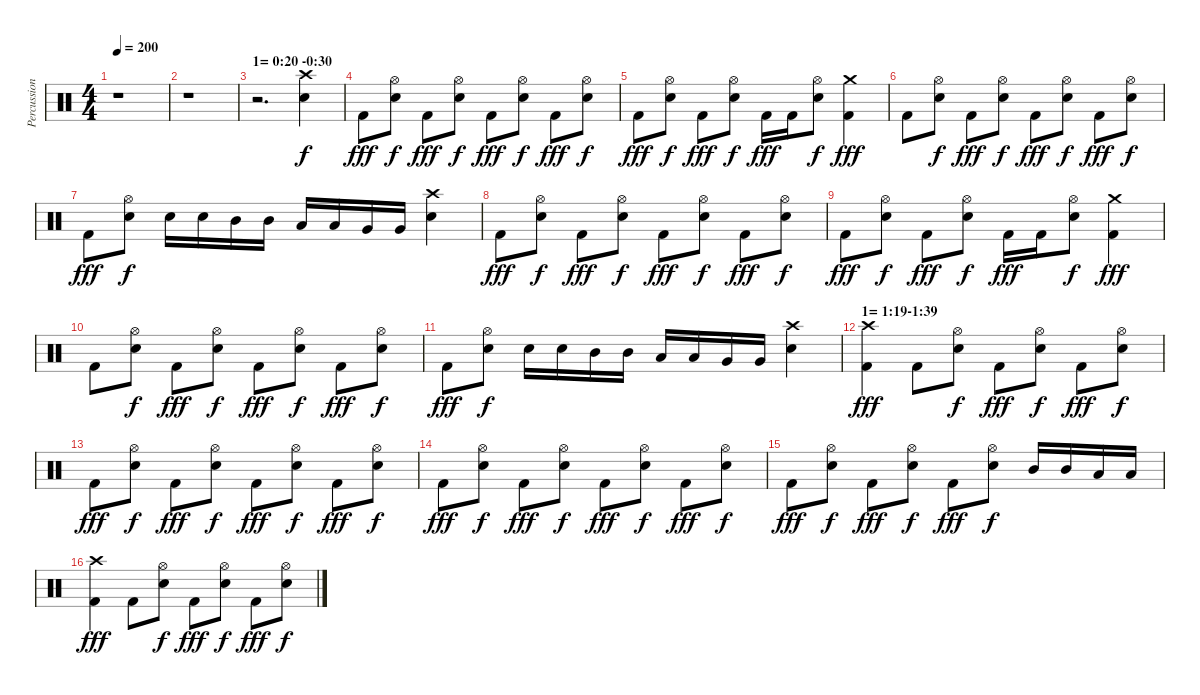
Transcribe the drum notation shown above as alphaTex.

\track ("Percussion" "Percussion") {instrument percussion}
\staff {score}
\articulation defaults
\ts (4 4)
\tempo 200
\clef neutral
\ks c
r.1{dy f} |
r.1 |
\section ("" "1= 0:20 -0:30 ")
r.2{d} ("Crash high (hit)" "Snare (hit) 2").4 |
"Kick (hit) 2".8{dy fff} ("Hi-Hat (open)" "Snare (hit) 2").8{dy f} "Kick (hit) 2".8{dy fff} ("Hi-Hat (open)" "Snare (hit) 2").8{dy f} "Kick (hit) 2".8{dy fff} ("Hi-Hat (open)" "Snare (hit) 2").8{dy f} "Kick (hit) 2".8{dy fff} ("Hi-Hat (open)" "Snare (hit) 2").8{dy f} |
"Kick (hit) 2".8{dy fff} ("Hi-Hat (open)" "Snare (hit) 2").8{dy f} "Kick (hit) 2".8{dy fff} ("Hi-Hat (open)" "Snare (hit) 2").8{dy f} "Kick (hit) 2".16{dy fff} "Kick (hit) 2".16 ("Hi-Hat (open)" "Snare (hit) 2").8{dy f} ("Crash medium (hit)" "Kick (hit) 2").4{dy fff} |
"Kick (hit) 2".8 ("Hi-Hat (open)" "Snare (hit) 2").8{dy f} "Kick (hit) 2".8{dy fff} ("Hi-Hat (open)" "Snare (hit) 2").8{dy f} "Kick (hit) 2".8{dy fff} ("Hi-Hat (open)" "Snare (hit) 2").8{dy f} "Kick (hit) 2".8{dy fff} ("Hi-Hat (open)" "Snare (hit) 2").8{dy f} |
"Kick (hit) 2".8{dy fff} ("Hi-Hat (open)" "Snare (hit) 2").8{dy f} "Snare (hit) 2".16 "Snare (hit) 2".16 "Mid Tom (hit)".16 "Mid Tom (hit)".16 "Low Tom (hit)".16 "Low Tom (hit)".16 "Very Low Tom (hit)".16 "Very Low Tom (hit)".16 ("Crash high (hit)" "Snare (hit) 2").4 |
"Kick (hit) 2".8{dy fff} ("Hi-Hat (open)" "Snare (hit) 2").8{dy f} "Kick (hit) 2".8{dy fff} ("Hi-Hat (open)" "Snare (hit) 2").8{dy f} "Kick (hit) 2".8{dy fff} ("Hi-Hat (open)" "Snare (hit) 2").8{dy f} "Kick (hit) 2".8{dy fff} ("Hi-Hat (open)" "Snare (hit) 2").8{dy f} |
"Kick (hit) 2".8{dy fff} ("Hi-Hat (open)" "Snare (hit) 2").8{dy f} "Kick (hit) 2".8{dy fff} ("Hi-Hat (open)" "Snare (hit) 2").8{dy f} "Kick (hit) 2".16{dy fff} "Kick (hit) 2".16 ("Hi-Hat (open)" "Snare (hit) 2").8{dy f} ("Crash medium (hit)" "Kick (hit) 2").4{dy fff} |
"Kick (hit) 2".8 ("Hi-Hat (open)" "Snare (hit) 2").8{dy f} "Kick (hit) 2".8{dy fff} ("Hi-Hat (open)" "Snare (hit) 2").8{dy f} "Kick (hit) 2".8{dy fff} ("Hi-Hat (open)" "Snare (hit) 2").8{dy f} "Kick (hit) 2".8{dy fff} ("Hi-Hat (open)" "Snare (hit) 2").8{dy f} |
"Kick (hit) 2".8{dy fff} ("Hi-Hat (open)" "Snare (hit) 2").8{dy f} "Snare (hit) 2".16 "Snare (hit) 2".16 "Mid Tom (hit)".16 "Mid Tom (hit)".16 "Low Tom (hit)".16 "Low Tom (hit)".16 "Very Low Tom (hit)".16 "Very Low Tom (hit)".16 ("Crash high (hit)" "Snare (hit) 2").4 |
\section ("" "1= 1:19-1:39")
("Crash high (hit)" "Kick (hit) 2").4{dy fff} "Kick (hit) 2".8 ("Hi-Hat (open)" "Snare (hit) 2").8{dy f} "Kick (hit) 2".8{dy fff} ("Hi-Hat (open)" "Snare (hit) 2").8{dy f} "Kick (hit) 2".8{dy fff} ("Hi-Hat (open)" "Snare (hit) 2").8{dy f} |
"Kick (hit) 2".8{dy fff} ("Hi-Hat (open)" "Snare (hit) 2").8{dy f} "Kick (hit) 2".8{dy fff} ("Hi-Hat (open)" "Snare (hit) 2").8{dy f} "Kick (hit) 2".8{dy fff} ("Hi-Hat (open)" "Snare (hit) 2").8{dy f} "Kick (hit) 2".8{dy fff} ("Hi-Hat (open)" "Snare (hit) 2").8{dy f} |
"Kick (hit) 2".8{dy fff} ("Hi-Hat (open)" "Snare (hit) 2").8{dy f} "Kick (hit) 2".8{dy fff} ("Hi-Hat (open)" "Snare (hit) 2").8{dy f} "Kick (hit) 2".8{dy fff} ("Hi-Hat (open)" "Snare (hit) 2").8{dy f} "Kick (hit) 2".8{dy fff} ("Hi-Hat (open)" "Snare (hit) 2").8{dy f} |
"Kick (hit) 2".8{dy fff} ("Hi-Hat (open)" "Snare (hit) 2").8{dy f} "Kick (hit) 2".8{dy fff} ("Hi-Hat (open)" "Snare (hit) 2").8{dy f} "Kick (hit) 2".8{dy fff} ("Hi-Hat (open)" "Snare (hit) 2").8{dy f} "Mid Tom (hit)".16 "Mid Tom (hit)".16 "Low Tom (hit)".16 "Low Tom (hit)".16 |
("Crash high (hit)" "Kick (hit) 2").4{dy fff} "Kick (hit) 2".8 ("Hi-Hat (open)" "Snare (hit) 2").8{dy f} "Kick (hit) 2".8{dy fff} ("Hi-Hat (open)" "Snare (hit) 2").8{dy f} "Kick (hit) 2".8{dy fff} ("Hi-Hat (open)" "Snare (hit) 2").8{dy f}
